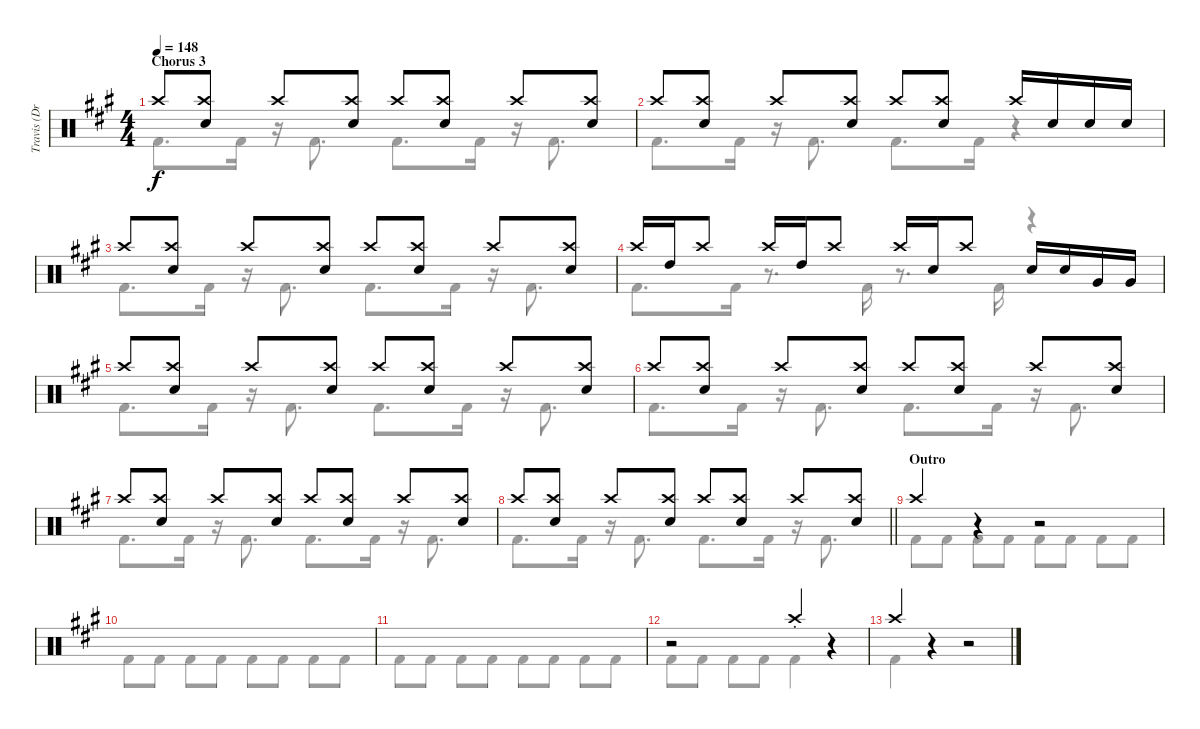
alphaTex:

\track ("Travis (Drums)" "Travis (Dr") {instrument percussion}
\staff {score}
\articulation defaults
\voice
\ts (4 4)
\section ("" "Chorus 3")
\tempo 148
\clef neutral
\ks a "Crash high (hit)".8{dy f}
("Crash high (hit)" "Electric Snare (hit)").8 "Crash high (hit)".8 ("Crash high (hit)" "Electric Snare (hit)").8 "Crash high (hit)".8 ("Crash high (hit)" "Electric Snare (hit)").8 "Crash high (hit)".8 ("Crash high (hit)" "Electric Snare (hit)").8 |
"Crash high (hit)".8 ("Crash high (hit)" "Electric Snare (hit)").8 "Crash high (hit)".8 ("Crash high (hit)" "Electric Snare (hit)").8 "Crash high (hit)".8 ("Crash high (hit)" "Electric Snare (hit)").8 "Crash high (hit)".16 "Electric Snare (hit)".16 "Electric Snare (hit)".16 "Electric Snare (hit)".16 |
"Crash high (hit)".8 ("Crash high (hit)" "Electric Snare (hit)").8 "Crash high (hit)".8 ("Crash high (hit)" "Electric Snare (hit)").8 "Crash high (hit)".8 ("Crash high (hit)" "Electric Snare (hit)").8 "Crash high (hit)".8 ("Crash high (hit)" "Electric Snare (hit)").8 |
"Crash high (hit)".16 "High Tom (hit)".16 "Crash high (hit)".8 "Crash high (hit)".16 "High Tom (hit)".16 "Crash high (hit)".8 "Crash high (hit)".16 "Electric Snare (hit)".16 "Crash high (hit)".8 "Electric Snare (hit)".16 "Electric Snare (hit)".16 "Very Low Tom (hit)".16 "Very Low Tom (hit)".16 |
"Crash high (hit)".8 ("Crash high (hit)" "Electric Snare (hit)").8 "Crash high (hit)".8 ("Crash high (hit)" "Electric Snare (hit)").8 "Crash high (hit)".8 ("Crash high (hit)" "Electric Snare (hit)").8 "Crash high (hit)".8 ("Crash high (hit)" "Electric Snare (hit)").8 |
"Crash high (hit)".8 ("Crash high (hit)" "Electric Snare (hit)").8 "Crash high (hit)".8 ("Crash high (hit)" "Electric Snare (hit)").8 "Crash high (hit)".8 ("Crash high (hit)" "Electric Snare (hit)").8 "Crash high (hit)".8 ("Crash high (hit)" "Electric Snare (hit)").8 |
"Crash high (hit)".8 ("Crash high (hit)" "Electric Snare (hit)").8 "Crash high (hit)".8 ("Crash high (hit)" "Electric Snare (hit)").8 "Crash high (hit)".8 ("Crash high (hit)" "Electric Snare (hit)").8 "Crash high (hit)".8 ("Crash high (hit)" "Electric Snare (hit)").8 |
\barLineRight lightlight "Crash high (hit)".8
("Crash high (hit)" "Electric Snare (hit)").8 "Crash high (hit)".8 ("Crash high (hit)" "Electric Snare (hit)").8 "Crash high (hit)".8 ("Crash high (hit)" "Electric Snare (hit)").8 "Crash high (hit)".8 ("Crash high (hit)" "Electric Snare (hit)").8 |
\section ("" "Outro")
"Crash high (hit)".4 r.4 r.2 |
|
|
r.2 "Crash high (hit)"{st}.4 r.4 |
"Crash high (hit)".4 r.4 r.2 |
\voice
\clef neutral
\ottava regular
\simile none
\ks a "Kick (hit) 2".8{d dy f} "Kick (hit) 2".16
r.16 "Kick (hit) 2".8{d} "Kick (hit) 2".8{d} "Kick (hit) 2".16 r.16 "Kick (hit) 2".8{d} |
"Kick (hit) 2".8{d} "Kick (hit) 2".16 r.16 "Kick (hit) 2".8{d} "Kick (hit) 2".8{d} "Kick (hit) 2".16 r.4 |
"Kick (hit) 2".8{d} "Kick (hit) 2".16 r.16 "Kick (hit) 2".8{d} "Kick (hit) 2".8{d} "Kick (hit) 2".16 r.16 "Kick (hit) 2".8{d} |
"Kick (hit) 2".8{d} "Kick (hit) 2".16 r.8{d} "Kick (hit) 2".16 r.8{d} "Kick (hit) 2".16 r.4 |
"Kick (hit) 2".8{d} "Kick (hit) 2".16 r.16 "Kick (hit) 2".8{d} "Kick (hit) 2".8{d} "Kick (hit) 2".16 r.16 "Kick (hit) 2".8{d} |
"Kick (hit) 2".8{d} "Kick (hit) 2".16 r.16 "Kick (hit) 2".8{d} "Kick (hit) 2".8{d} "Kick (hit) 2".16 r.16 "Kick (hit) 2".8{d} |
"Kick (hit) 2".8{d} "Kick (hit) 2".16 r.16 "Kick (hit) 2".8{d} "Kick (hit) 2".8{d} "Kick (hit) 2".16 r.16 "Kick (hit) 2".8{d} |
\barLineRight lightlight "Kick (hit) 2".8{d} "Kick (hit) 2".16
r.16 "Kick (hit) 2".8{d} "Kick (hit) 2".8{d} "Kick (hit) 2".16 r.16 "Kick (hit) 2".8{d} |
"Kick (hit) 2".8 "Kick (hit) 2".8 "Kick (hit) 2".8 "Kick (hit) 2".8 "Kick (hit) 2".8 "Kick (hit) 2".8 "Kick (hit) 2".8 "Kick (hit) 2".8 |
"Kick (hit) 2".8 "Kick (hit) 2".8 "Kick (hit) 2".8 "Kick (hit) 2".8 "Kick (hit) 2".8 "Kick (hit) 2".8 "Kick (hit) 2".8 "Kick (hit) 2".8 |
"Kick (hit) 2".8 "Kick (hit) 2".8 "Kick (hit) 2".8 "Kick (hit) 2".8 "Kick (hit) 2".8 "Kick (hit) 2".8 "Kick (hit) 2".8 "Kick (hit) 2".8 |
"Kick (hit) 2".8 "Kick (hit) 2".8 "Kick (hit) 2".8 "Kick (hit) 2".8 "Kick (hit) 2".4 r.4 |
"Kick (hit) 2".4 r.4 r.2 |
